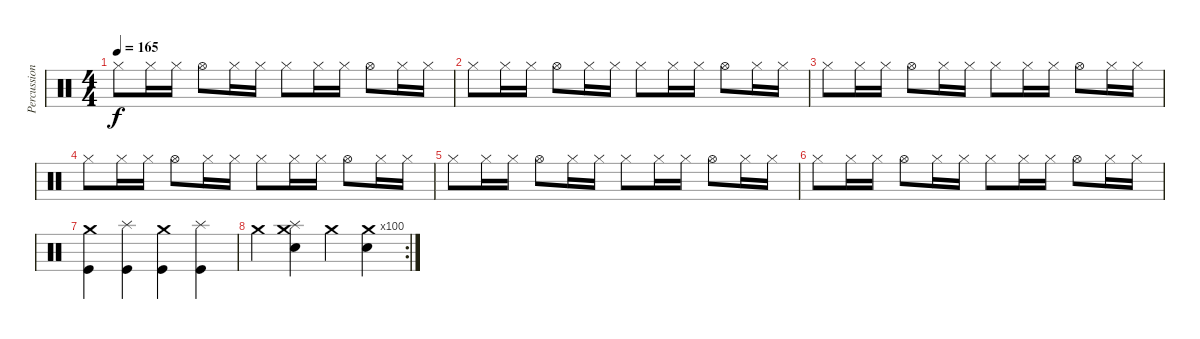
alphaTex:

\track ("Percussion" "Percussion") {instrument percussion}
\staff {score}
\articulation defaults
\ts (4 4)
\tempo 165
\clef neutral
\ks c "Hi-Hat (closed)".8{dy f} "Hi-Hat (closed)".16 "Hi-Hat (closed)".16 "Hi-Hat (open)".8 "Hi-Hat (closed)".16 "Hi-Hat (closed)".16 "Hi-Hat (closed)".8 "Hi-Hat (closed)".16 "Hi-Hat (closed)".16 "Hi-Hat (open)".8 "Hi-Hat (closed)".16 "Hi-Hat (closed)".16
|
"Hi-Hat (closed)".8 "Hi-Hat (closed)".16 "Hi-Hat (closed)".16 "Hi-Hat (open)".8 "Hi-Hat (closed)".16 "Hi-Hat (closed)".16 "Hi-Hat (closed)".8 "Hi-Hat (closed)".16 "Hi-Hat (closed)".16 "Hi-Hat (open)".8 "Hi-Hat (closed)".16 "Hi-Hat (closed)".16 |
"Hi-Hat (closed)".8 "Hi-Hat (closed)".16 "Hi-Hat (closed)".16 "Hi-Hat (open)".8 "Hi-Hat (closed)".16 "Hi-Hat (closed)".16 "Hi-Hat (closed)".8 "Hi-Hat (closed)".16 "Hi-Hat (closed)".16 "Hi-Hat (open)".8 "Hi-Hat (closed)".16 "Hi-Hat (closed)".16 |
"Hi-Hat (closed)".8 "Hi-Hat (closed)".16 "Hi-Hat (closed)".16 "Hi-Hat (open)".8 "Hi-Hat (closed)".16 "Hi-Hat (closed)".16 "Hi-Hat (closed)".8 "Hi-Hat (closed)".16 "Hi-Hat (closed)".16 "Hi-Hat (open)".8 "Hi-Hat (closed)".16 "Hi-Hat (closed)".16 |
"Hi-Hat (closed)".8 "Hi-Hat (closed)".16 "Hi-Hat (closed)".16 "Hi-Hat (open)".8 "Hi-Hat (closed)".16 "Hi-Hat (closed)".16 "Hi-Hat (closed)".8 "Hi-Hat (closed)".16 "Hi-Hat (closed)".16 "Hi-Hat (open)".8 "Hi-Hat (closed)".16 "Hi-Hat (closed)".16 |
"Hi-Hat (closed)".8 "Hi-Hat (closed)".16 "Hi-Hat (closed)".16 "Hi-Hat (open)".8 "Hi-Hat (closed)".16 "Hi-Hat (closed)".16 "Hi-Hat (closed)".8 "Hi-Hat (closed)".16 "Hi-Hat (closed)".16 "Hi-Hat (open)".8 "Hi-Hat (closed)".16 "Hi-Hat (closed)".16 |
("Crash medium (hit)" "Kick (hit)").4 ("Splash (hit)" "Kick (hit)").4 ("Crash medium (hit)" "Kick (hit)").4 ("Splash (hit)" "Kick (hit)").4 |
\rc 100 "Crash medium (hit)".4
("Crash medium (hit)" "Splash (hit)" "Snare (hit) 2").4 "Crash medium (hit)".4 ("Crash medium (hit)" "Snare (hit) 2").4
